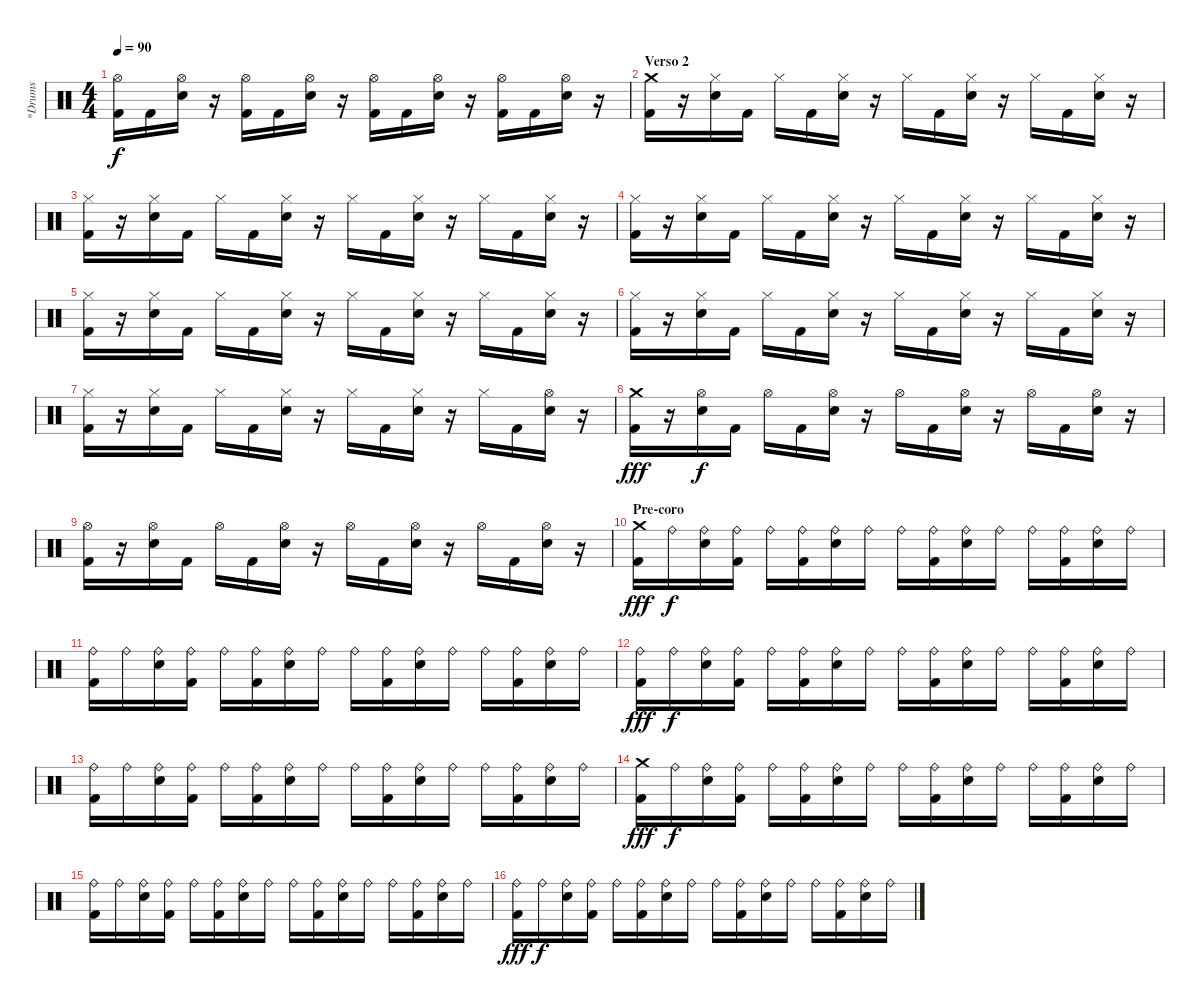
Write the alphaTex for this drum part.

\track ("*Drums" "*Drums") {instrument percussion}
\staff {score}
\articulation defaults
\ts (4 4)
\tempo 90
\clef neutral
\ks c
("Hi-Hat (open)" "Kick (hit) 2").16{dy f} "Kick (hit) 2".16 ("Hi-Hat (open)" "Electric Snare (hit)").16 r.16 ("Hi-Hat (open)" "Kick (hit) 2").16 "Kick (hit) 2".16 ("Hi-Hat (open)" "Electric Snare (hit)").16 r.16 ("Hi-Hat (open)" "Kick (hit) 2").16 "Kick (hit) 2".16 ("Hi-Hat (open)" "Electric Snare (hit)").16 r.16 ("Hi-Hat (open)" "Kick (hit) 2").16 "Kick (hit) 2".16 ("Hi-Hat (open)" "Electric Snare (hit)").16 r.16 |
\section ("" "Verso 2")
("Crash medium (hit)" "Kick (hit) 2").16 r.16 ("Hi-Hat (closed)" "Electric Snare (hit)").16 "Kick (hit) 2".16 "Hi-Hat (closed)".16 "Kick (hit) 2".16 ("Hi-Hat (closed)" "Electric Snare (hit)").16 r.16 "Hi-Hat (closed)".16 "Kick (hit) 2".16 ("Hi-Hat (closed)" "Electric Snare (hit)").16 r.16 "Hi-Hat (closed)".16 "Kick (hit) 2".16 ("Hi-Hat (closed)" "Electric Snare (hit)").16 r.16 |
("Hi-Hat (closed)" "Kick (hit) 2").16 r.16 ("Hi-Hat (closed)" "Electric Snare (hit)").16 "Kick (hit) 2".16 "Hi-Hat (closed)".16 "Kick (hit) 2".16 ("Hi-Hat (closed)" "Electric Snare (hit)").16 r.16 "Hi-Hat (closed)".16 "Kick (hit) 2".16 ("Hi-Hat (closed)" "Electric Snare (hit)").16 r.16 "Hi-Hat (closed)".16 "Kick (hit) 2".16 ("Hi-Hat (closed)" "Electric Snare (hit)").16 r.16 |
("Hi-Hat (closed)" "Kick (hit) 2").16 r.16 ("Hi-Hat (closed)" "Electric Snare (hit)").16 "Kick (hit) 2".16 "Hi-Hat (closed)".16 "Kick (hit) 2".16 ("Hi-Hat (closed)" "Electric Snare (hit)").16 r.16 "Hi-Hat (closed)".16 "Kick (hit) 2".16 ("Hi-Hat (closed)" "Electric Snare (hit)").16 r.16 "Hi-Hat (closed)".16 "Kick (hit) 2".16 ("Hi-Hat (closed)" "Electric Snare (hit)").16 r.16 |
("Hi-Hat (closed)" "Kick (hit) 2").16 r.16 ("Hi-Hat (closed)" "Electric Snare (hit)").16 "Kick (hit) 2".16 "Hi-Hat (closed)".16 "Kick (hit) 2".16 ("Hi-Hat (closed)" "Electric Snare (hit)").16 r.16 "Hi-Hat (closed)".16 "Kick (hit) 2".16 ("Hi-Hat (closed)" "Electric Snare (hit)").16 r.16 "Hi-Hat (closed)".16 "Kick (hit) 2".16 ("Hi-Hat (closed)" "Electric Snare (hit)").16 r.16 |
("Hi-Hat (closed)" "Kick (hit) 2").16 r.16 ("Hi-Hat (closed)" "Electric Snare (hit)").16 "Kick (hit) 2".16 "Hi-Hat (closed)".16 "Kick (hit) 2".16 ("Hi-Hat (closed)" "Electric Snare (hit)").16 r.16 "Hi-Hat (closed)".16 "Kick (hit) 2".16 ("Hi-Hat (closed)" "Electric Snare (hit)").16 r.16 "Hi-Hat (closed)".16 "Kick (hit) 2".16 ("Hi-Hat (closed)" "Electric Snare (hit)").16 r.16 |
("Hi-Hat (closed)" "Kick (hit) 2").16 r.16 ("Hi-Hat (closed)" "Electric Snare (hit)").16 "Kick (hit) 2".16 "Hi-Hat (closed)".16 "Kick (hit) 2".16 ("Hi-Hat (closed)" "Electric Snare (hit)").16 r.16 "Hi-Hat (closed)".16 "Kick (hit) 2".16 ("Hi-Hat (closed)" "Electric Snare (hit)").16 r.16 "Hi-Hat (closed)".16 "Kick (hit) 2".16 ("Hi-Hat (open)" "Electric Snare (hit)").16 r.16 |
("Crash medium (hit)" "Kick (hit) 2").16{dy fff} r.16 ("Hi-Hat (open)" "Electric Snare (hit)").16{dy f} "Kick (hit) 2".16 "Hi-Hat (open)".16 "Kick (hit) 2".16 ("Hi-Hat (open)" "Electric Snare (hit)").16 r.16 "Hi-Hat (open)".16 "Kick (hit) 2".16 ("Hi-Hat (open)" "Electric Snare (hit)").16 r.16 "Hi-Hat (open)".16 "Kick (hit) 2".16 ("Hi-Hat (open)" "Electric Snare (hit)").16 r.16 |
("Hi-Hat (open)" "Kick (hit) 2").16 r.16 ("Hi-Hat (open)" "Electric Snare (hit)").16 "Kick (hit) 2".16 "Hi-Hat (open)".16 "Kick (hit) 2".16 ("Hi-Hat (open)" "Electric Snare (hit)").16 r.16 "Hi-Hat (open)".16 "Kick (hit) 2".16 ("Hi-Hat (open)" "Electric Snare (hit)").16 r.16 "Hi-Hat (open)".16 "Kick (hit) 2".16 ("Hi-Hat (open)" "Electric Snare (hit)").16 r.16 |
\section ("" "Pre-coro")
("Crash medium (hit)" "Kick (hit) 2").16{dy fff} "Ride (bell)".16{dy f} ("Ride (bell)" "Electric Snare (hit)").16 ("Ride (bell)" "Kick (hit) 2").16 "Ride (bell)".16 ("Ride (bell)" "Kick (hit) 2").16 ("Ride (bell)" "Electric Snare (hit)").16 "Ride (bell)".16 "Ride (bell)".16 ("Ride (bell)" "Kick (hit) 2").16 ("Ride (bell)" "Electric Snare (hit)").16 "Ride (bell)".16 "Ride (bell)".16 ("Ride (bell)" "Kick (hit) 2").16 ("Ride (bell)" "Electric Snare (hit)").16 "Ride (bell)".16 |
("Ride (bell)" "Kick (hit) 2").16 "Ride (bell)".16 ("Ride (bell)" "Electric Snare (hit)").16 ("Ride (bell)" "Kick (hit) 2").16 "Ride (bell)".16 ("Ride (bell)" "Kick (hit) 2").16 ("Ride (bell)" "Electric Snare (hit)").16 "Ride (bell)".16 "Ride (bell)".16 ("Ride (bell)" "Kick (hit) 2").16 ("Ride (bell)" "Electric Snare (hit)").16 "Ride (bell)".16 "Ride (bell)".16 ("Ride (bell)" "Kick (hit) 2").16 ("Ride (bell)" "Electric Snare (hit)").16 "Ride (bell)".16 |
("Ride (bell)" "Kick (hit) 2").16{dy fff} "Ride (bell)".16{dy f} ("Ride (bell)" "Electric Snare (hit)").16 ("Ride (bell)" "Kick (hit) 2").16 "Ride (bell)".16 ("Ride (bell)" "Kick (hit) 2").16 ("Ride (bell)" "Electric Snare (hit)").16 "Ride (bell)".16 "Ride (bell)".16 ("Ride (bell)" "Kick (hit) 2").16 ("Ride (bell)" "Electric Snare (hit)").16 "Ride (bell)".16 "Ride (bell)".16 ("Ride (bell)" "Kick (hit) 2").16 ("Ride (bell)" "Electric Snare (hit)").16 "Ride (bell)".16 |
("Ride (bell)" "Kick (hit) 2").16 "Ride (bell)".16 ("Ride (bell)" "Electric Snare (hit)").16 ("Ride (bell)" "Kick (hit) 2").16 "Ride (bell)".16 ("Ride (bell)" "Kick (hit) 2").16 ("Ride (bell)" "Electric Snare (hit)").16 "Ride (bell)".16 "Ride (bell)".16 ("Ride (bell)" "Kick (hit) 2").16 ("Ride (bell)" "Electric Snare (hit)").16 "Ride (bell)".16 "Ride (bell)".16 ("Ride (bell)" "Kick (hit) 2").16 ("Ride (bell)" "Electric Snare (hit)").16 "Ride (bell)".16 |
("Crash medium (hit)" "Kick (hit) 2").16{dy fff} "Ride (bell)".16{dy f} ("Ride (bell)" "Electric Snare (hit)").16 ("Ride (bell)" "Kick (hit) 2").16 "Ride (bell)".16 ("Ride (bell)" "Kick (hit) 2").16 ("Ride (bell)" "Electric Snare (hit)").16 "Ride (bell)".16 "Ride (bell)".16 ("Ride (bell)" "Kick (hit) 2").16 ("Ride (bell)" "Electric Snare (hit)").16 "Ride (bell)".16 "Ride (bell)".16 ("Ride (bell)" "Kick (hit) 2").16 ("Ride (bell)" "Electric Snare (hit)").16 "Ride (bell)".16 |
("Ride (bell)" "Kick (hit) 2").16 "Ride (bell)".16 ("Ride (bell)" "Electric Snare (hit)").16 ("Ride (bell)" "Kick (hit) 2").16 "Ride (bell)".16 ("Ride (bell)" "Kick (hit) 2").16 ("Ride (bell)" "Electric Snare (hit)").16 "Ride (bell)".16 "Ride (bell)".16 ("Ride (bell)" "Kick (hit) 2").16 ("Ride (bell)" "Electric Snare (hit)").16 "Ride (bell)".16 "Ride (bell)".16 ("Ride (bell)" "Kick (hit) 2").16 ("Ride (bell)" "Electric Snare (hit)").16 "Ride (bell)".16 |
("Ride (bell)" "Kick (hit) 2").16{dy fff} "Ride (bell)".16{dy f} ("Ride (bell)" "Electric Snare (hit)").16 ("Ride (bell)" "Kick (hit) 2").16 "Ride (bell)".16 ("Ride (bell)" "Kick (hit) 2").16 ("Ride (bell)" "Electric Snare (hit)").16 "Ride (bell)".16 "Ride (bell)".16 ("Ride (bell)" "Kick (hit) 2").16 ("Ride (bell)" "Electric Snare (hit)").16 "Ride (bell)".16 "Ride (bell)".16 ("Ride (bell)" "Kick (hit) 2").16 ("Ride (bell)" "Electric Snare (hit)").16 "Ride (bell)".16
